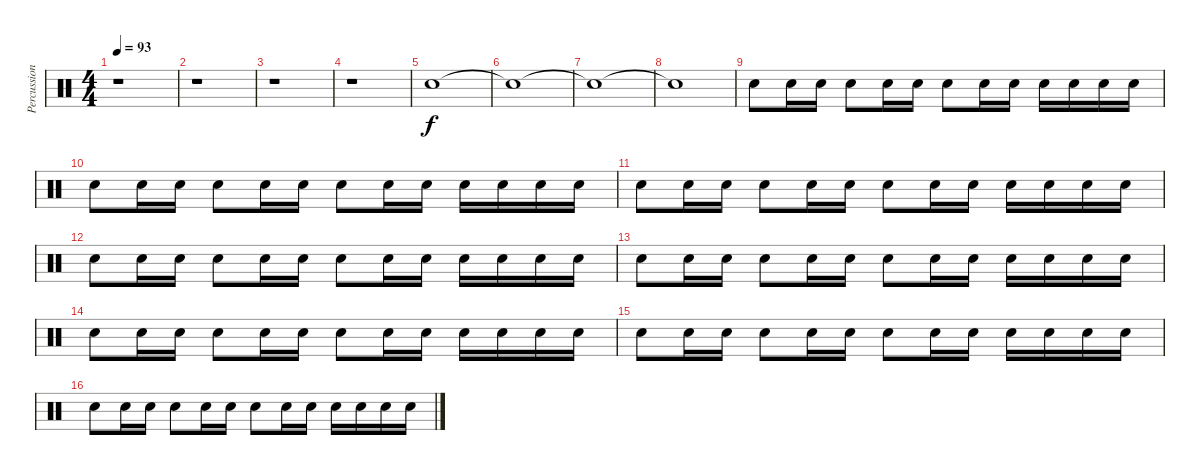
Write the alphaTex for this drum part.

\track ("Percussion" "Percussion") {instrument percussion}
\staff {score}
\articulation defaults
\ts (4 4)
\tempo 93
\clef neutral
\ks c
r.1{dy f} |
r.1 |
r.1 |
r.1{volume 5} |
"Snare (hit) 2"{tr (38 64)}.1 |
"Snare (hit)"{t}.1 |
"Snare (hit)"{t}.1{volume 10} |
"Snare (hit)"{t}.1 |
"Snare (hit) 2".8 "Snare (hit) 2".16 "Snare (hit) 2".16 "Snare (hit) 2".8 "Snare (hit) 2".16 "Snare (hit) 2".16 "Snare (hit) 2".8 "Snare (hit) 2".16 "Snare (hit) 2".16 "Snare (hit) 2".16 "Snare (hit) 2".16 "Snare (hit) 2".16 "Snare (hit) 2".16 |
"Snare (hit) 2".8 "Snare (hit) 2".16 "Snare (hit) 2".16 "Snare (hit) 2".8 "Snare (hit) 2".16 "Snare (hit) 2".16 "Snare (hit) 2".8 "Snare (hit) 2".16 "Snare (hit) 2".16 "Snare (hit) 2".16 "Snare (hit) 2".16 "Snare (hit) 2".16 "Snare (hit) 2".16 |
"Snare (hit) 2".8 "Snare (hit) 2".16 "Snare (hit) 2".16 "Snare (hit) 2".8 "Snare (hit) 2".16 "Snare (hit) 2".16 "Snare (hit) 2".8 "Snare (hit) 2".16 "Snare (hit) 2".16 "Snare (hit) 2".16 "Snare (hit) 2".16 "Snare (hit) 2".16 "Snare (hit) 2".16 |
"Snare (hit) 2".8 "Snare (hit) 2".16 "Snare (hit) 2".16 "Snare (hit) 2".8 "Snare (hit) 2".16 "Snare (hit) 2".16 "Snare (hit) 2".8 "Snare (hit) 2".16 "Snare (hit) 2".16 "Snare (hit) 2".16 "Snare (hit) 2".16 "Snare (hit) 2".16 "Snare (hit) 2".16 |
"Snare (hit) 2".8 "Snare (hit) 2".16 "Snare (hit) 2".16 "Snare (hit) 2".8 "Snare (hit) 2".16 "Snare (hit) 2".16 "Snare (hit) 2".8 "Snare (hit) 2".16 "Snare (hit) 2".16 "Snare (hit) 2".16 "Snare (hit) 2".16 "Snare (hit) 2".16 "Snare (hit) 2".16 |
"Snare (hit) 2".8 "Snare (hit) 2".16 "Snare (hit) 2".16 "Snare (hit) 2".8 "Snare (hit) 2".16 "Snare (hit) 2".16 "Snare (hit) 2".8 "Snare (hit) 2".16 "Snare (hit) 2".16 "Snare (hit) 2".16 "Snare (hit) 2".16 "Snare (hit) 2".16 "Snare (hit) 2".16 |
"Snare (hit) 2".8 "Snare (hit) 2".16 "Snare (hit) 2".16 "Snare (hit) 2".8 "Snare (hit) 2".16 "Snare (hit) 2".16 "Snare (hit) 2".8 "Snare (hit) 2".16 "Snare (hit) 2".16 "Snare (hit) 2".16 "Snare (hit) 2".16 "Snare (hit) 2".16 "Snare (hit) 2".16 |
"Snare (hit) 2".8 "Snare (hit) 2".16 "Snare (hit) 2".16 "Snare (hit) 2".8 "Snare (hit) 2".16 "Snare (hit) 2".16 "Snare (hit) 2".8 "Snare (hit) 2".16 "Snare (hit) 2".16 "Snare (hit) 2".16 "Snare (hit) 2".16 "Snare (hit) 2".16 "Snare (hit) 2".16
